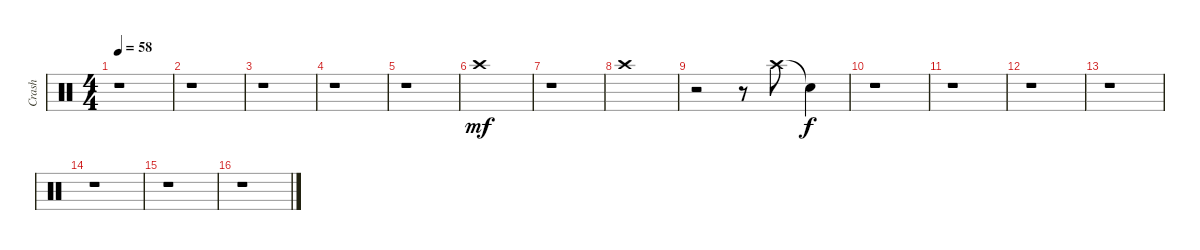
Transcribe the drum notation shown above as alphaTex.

\track ("Crash" "Crash") {instrument percussion}
\staff {score}
\articulation defaults
\ts (4 4)
\tempo 58
\clef neutral
\ks c
r.1{dy f} |
r.1 |
r.1 |
r.1 |
r.1 |
"Crash high (hit)".1{dy mf} |
r.1 |
"Crash high (hit)".1 |
r.2 r.8 "Crash high (hit)".8 "Snare (hit)"{t}.4{dy f} |
r.1 |
r.1 |
r.1 |
r.1 |
r.1 |
r.1 |
r.1
